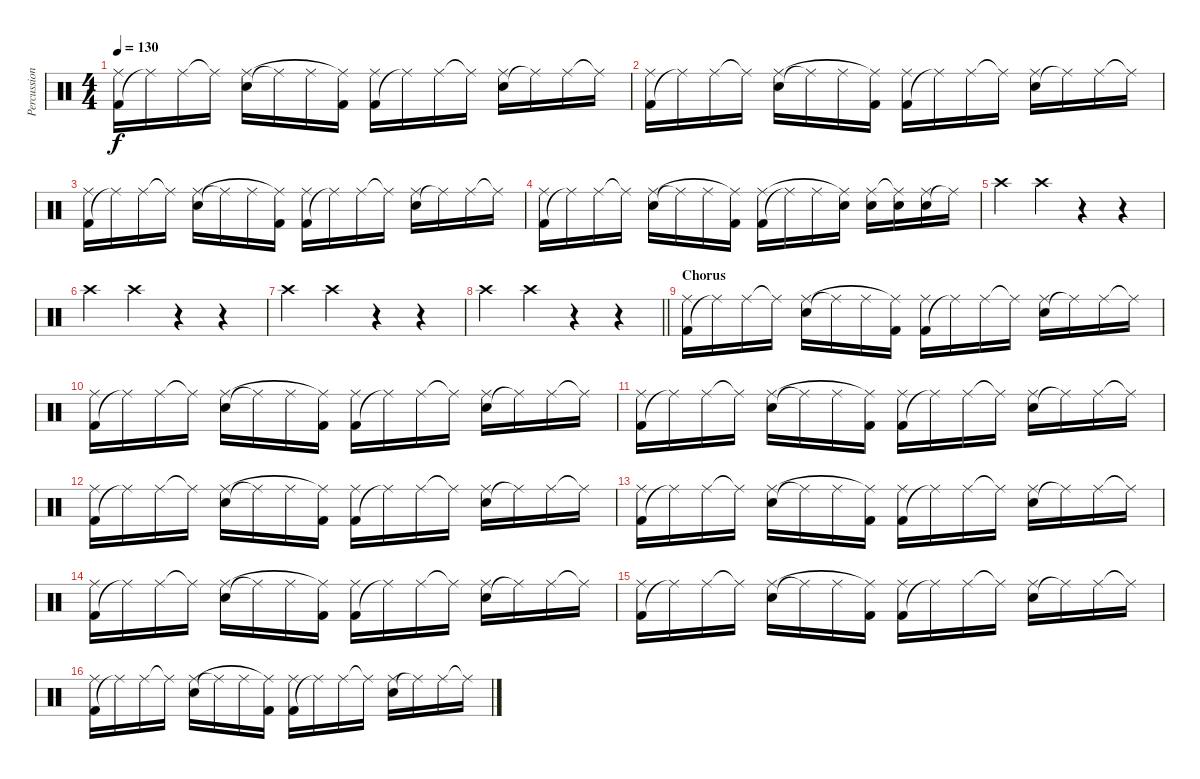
\track ("Percussion" "Percussion") {instrument percussion}
\staff {score}
\articulation defaults
\ts (4 4)
\tempo 130
\clef neutral
\ks c
("Kick (hit) 2" "Ride (middle)").16{dy f} "Ride (middle)"{t}.16 "Ride (middle)".16 "Ride (middle)"{t}.16 ("Snare (hit) 2" "Ride (middle)").16 "Ride (middle)"{t}.16 "Ride (middle)".16 ("Kick (hit) 2" "Ride (middle)"{t}).16 ("Kick (hit) 2" "Ride (middle)").16 "Ride (middle)"{t}.16 "Ride (middle)".16 "Ride (middle)"{t}.16 ("Snare (hit) 2" "Ride (middle)").16 "Ride (middle)"{t}.16 "Ride (middle)".16 "Ride (middle)"{t}.16 |
("Kick (hit) 2" "Ride (middle)").16 "Ride (middle)"{t}.16 "Ride (middle)".16 "Ride (middle)"{t}.16 ("Snare (hit) 2" "Ride (middle)").16 "Ride (middle)"{t}.16 "Ride (middle)".16 ("Kick (hit) 2" "Ride (middle)"{t}).16 ("Kick (hit) 2" "Ride (middle)").16 "Ride (middle)"{t}.16 "Ride (middle)".16 "Ride (middle)"{t}.16 ("Snare (hit) 2" "Ride (middle)").16 "Ride (middle)"{t}.16 "Ride (middle)".16 "Ride (middle)"{t}.16 |
("Kick (hit) 2" "Ride (middle)").16 "Ride (middle)"{t}.16 "Ride (middle)".16 "Ride (middle)"{t}.16 ("Snare (hit) 2" "Ride (middle)").16 "Ride (middle)"{t}.16 "Ride (middle)".16 ("Kick (hit) 2" "Ride (middle)"{t}).16 ("Kick (hit) 2" "Ride (middle)").16 "Ride (middle)"{t}.16 "Ride (middle)".16 "Ride (middle)"{t}.16 ("Snare (hit) 2" "Ride (middle)").16 "Ride (middle)"{t}.16 "Ride (middle)".16 "Ride (middle)"{t}.16 |
("Kick (hit) 2" "Ride (middle)").16 "Ride (middle)"{t}.16 "Ride (middle)".16 "Ride (middle)"{t}.16 ("Snare (hit) 2" "Ride (middle)").16 "Ride (middle)"{t}.16 "Ride (middle)".16 ("Kick (hit) 2" "Ride (middle)"{t}).16 ("Kick (hit) 2" "Ride (middle)").16 "Ride (middle)"{t}.16 "Ride (middle)".16 ("Electric Snare (hit)" "Ride (middle)"{t}).16 ("Electric Snare (hit)" "Ride (middle)").16 ("Electric Snare (hit)" "Ride (middle)"{t}).16 ("Electric Snare (hit)" "Ride (middle)").16 "Ride (middle)"{t}.16 |
"Crash high (hit)".4 "Crash high (hit)".4 r.4 r.4 |
"Crash high (hit)".4 "Crash high (hit)".4 r.4 r.4 |
"Crash high (hit)".4 "Crash high (hit)".4 r.4 r.4 |
\barLineRight lightlight "Crash high (hit)".4 "Crash high (hit)".4
r.4 r.4 |
\section ("" "Chorus")
("Kick (hit) 2" "Ride (middle)").16 "Ride (middle)"{t}.16 "Ride (middle)".16 "Ride (middle)"{t}.16 ("Snare (hit) 2" "Ride (middle)").16 "Ride (middle)"{t}.16 "Ride (middle)".16 ("Kick (hit) 2" "Ride (middle)"{t}).16 ("Kick (hit) 2" "Ride (middle)").16 "Ride (middle)"{t}.16 "Ride (middle)".16 "Ride (middle)"{t}.16 ("Snare (hit) 2" "Ride (middle)").16 "Ride (middle)"{t}.16 "Ride (middle)".16 "Ride (middle)"{t}.16 |
("Kick (hit) 2" "Ride (middle)").16 "Ride (middle)"{t}.16 "Ride (middle)".16 "Ride (middle)"{t}.16 ("Snare (hit) 2" "Ride (middle)").16 "Ride (middle)"{t}.16 "Ride (middle)".16 ("Kick (hit) 2" "Ride (middle)"{t}).16 ("Kick (hit) 2" "Ride (middle)").16 "Ride (middle)"{t}.16 "Ride (middle)".16 "Ride (middle)"{t}.16 ("Snare (hit) 2" "Ride (middle)").16 "Ride (middle)"{t}.16 "Ride (middle)".16 "Ride (middle)"{t}.16 |
("Kick (hit) 2" "Ride (middle)").16 "Ride (middle)"{t}.16 "Ride (middle)".16 "Ride (middle)"{t}.16 ("Snare (hit) 2" "Ride (middle)").16 "Ride (middle)"{t}.16 "Ride (middle)".16 ("Kick (hit) 2" "Ride (middle)"{t}).16 ("Kick (hit) 2" "Ride (middle)").16 "Ride (middle)"{t}.16 "Ride (middle)".16 "Ride (middle)"{t}.16 ("Snare (hit) 2" "Ride (middle)").16 "Ride (middle)"{t}.16 "Ride (middle)".16 "Ride (middle)"{t}.16 |
("Kick (hit) 2" "Ride (middle)").16 "Ride (middle)"{t}.16 "Ride (middle)".16 "Ride (middle)"{t}.16 ("Snare (hit) 2" "Ride (middle)").16 "Ride (middle)"{t}.16 "Ride (middle)".16 ("Kick (hit) 2" "Ride (middle)"{t}).16 ("Kick (hit) 2" "Ride (middle)").16 "Ride (middle)"{t}.16 "Ride (middle)".16 "Ride (middle)"{t}.16 ("Snare (hit) 2" "Ride (middle)").16 "Ride (middle)"{t}.16 "Ride (middle)".16 "Ride (middle)"{t}.16 |
("Kick (hit) 2" "Ride (middle)").16 "Ride (middle)"{t}.16 "Ride (middle)".16 "Ride (middle)"{t}.16 ("Snare (hit) 2" "Ride (middle)").16 "Ride (middle)"{t}.16 "Ride (middle)".16 ("Kick (hit) 2" "Ride (middle)"{t}).16 ("Kick (hit) 2" "Ride (middle)").16 "Ride (middle)"{t}.16 "Ride (middle)".16 "Ride (middle)"{t}.16 ("Snare (hit) 2" "Ride (middle)").16 "Ride (middle)"{t}.16 "Ride (middle)".16 "Ride (middle)"{t}.16 |
("Kick (hit) 2" "Ride (middle)").16 "Ride (middle)"{t}.16 "Ride (middle)".16 "Ride (middle)"{t}.16 ("Snare (hit) 2" "Ride (middle)").16 "Ride (middle)"{t}.16 "Ride (middle)".16 ("Kick (hit) 2" "Ride (middle)"{t}).16 ("Kick (hit) 2" "Ride (middle)").16 "Ride (middle)"{t}.16 "Ride (middle)".16 "Ride (middle)"{t}.16 ("Snare (hit) 2" "Ride (middle)").16 "Ride (middle)"{t}.16 "Ride (middle)".16 "Ride (middle)"{t}.16 |
("Kick (hit) 2" "Ride (middle)").16 "Ride (middle)"{t}.16 "Ride (middle)".16 "Ride (middle)"{t}.16 ("Snare (hit) 2" "Ride (middle)").16 "Ride (middle)"{t}.16 "Ride (middle)".16 ("Kick (hit) 2" "Ride (middle)"{t}).16 ("Kick (hit) 2" "Ride (middle)").16 "Ride (middle)"{t}.16 "Ride (middle)".16 "Ride (middle)"{t}.16 ("Snare (hit) 2" "Ride (middle)").16 "Ride (middle)"{t}.16 "Ride (middle)".16 "Ride (middle)"{t}.16 |
("Kick (hit) 2" "Ride (middle)").16 "Ride (middle)"{t}.16 "Ride (middle)".16 "Ride (middle)"{t}.16 ("Snare (hit) 2" "Ride (middle)").16 "Ride (middle)"{t}.16 "Ride (middle)".16 ("Kick (hit) 2" "Ride (middle)"{t}).16 ("Kick (hit) 2" "Ride (middle)").16 "Ride (middle)"{t}.16 "Ride (middle)".16 "Ride (middle)"{t}.16 ("Snare (hit) 2" "Ride (middle)").16 "Ride (middle)"{t}.16 "Ride (middle)".16 "Ride (middle)"{t}.16
